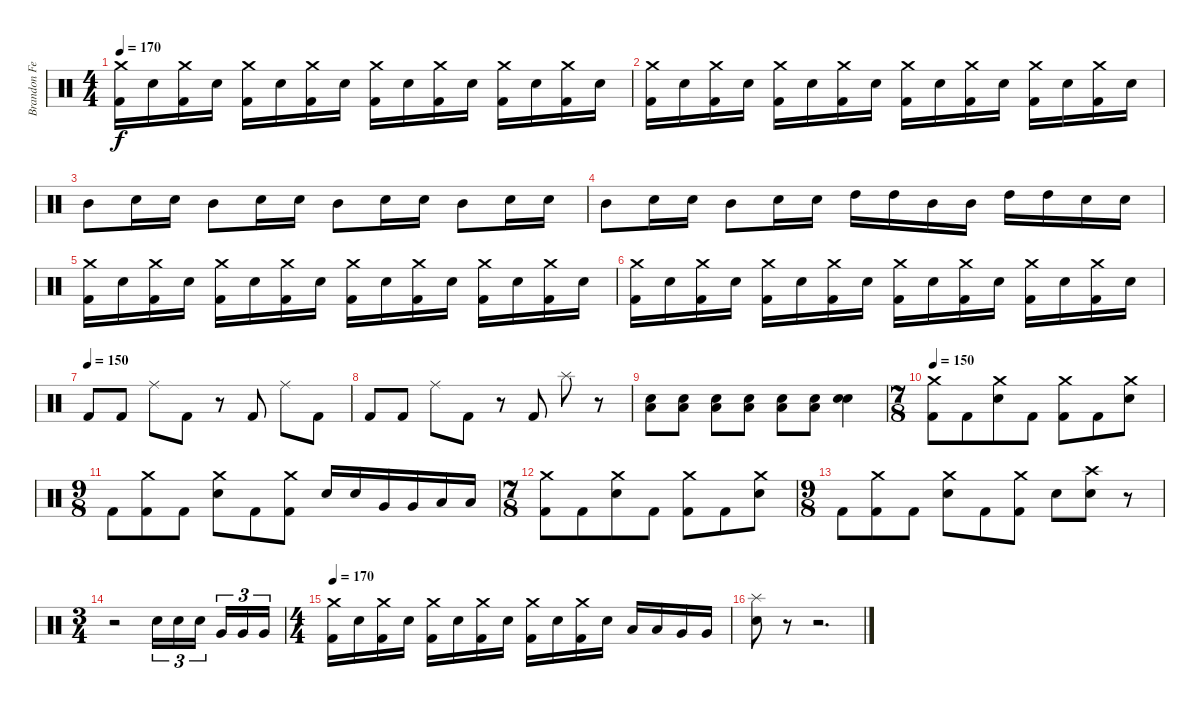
\track ("Brandon Ferrell" "Brandon Fe") {instrument percussion}
\staff {score}
\articulation defaults
\ts (4 4)
\tempo 170
\clef neutral
\ks c
("Crash medium (hit)" "Kick (hit) 2").16{dy f} "Electric Snare (hit)".16 ("Crash medium (hit)" "Kick (hit) 2").16 "Electric Snare (hit)".16 ("Crash medium (hit)" "Kick (hit) 2").16 "Electric Snare (hit)".16 ("Crash medium (hit)" "Kick (hit) 2").16 "Electric Snare (hit)".16 ("Crash medium (hit)" "Kick (hit) 2").16 "Electric Snare (hit)".16 ("Crash medium (hit)" "Kick (hit) 2").16 "Electric Snare (hit)".16 ("Crash medium (hit)" "Kick (hit) 2").16 "Electric Snare (hit)".16 ("Crash medium (hit)" "Kick (hit) 2").16 "Electric Snare (hit)".16 |
("Crash medium (hit)" "Kick (hit) 2").16 "Electric Snare (hit)".16 ("Crash medium (hit)" "Kick (hit) 2").16 "Electric Snare (hit)".16 ("Crash medium (hit)" "Kick (hit) 2").16 "Electric Snare (hit)".16 ("Crash medium (hit)" "Kick (hit) 2").16 "Electric Snare (hit)".16 ("Crash medium (hit)" "Kick (hit) 2").16 "Electric Snare (hit)".16 ("Crash medium (hit)" "Kick (hit) 2").16 "Electric Snare (hit)".16 ("Crash medium (hit)" "Kick (hit) 2").16 "Electric Snare (hit)".16 ("Crash medium (hit)" "Kick (hit) 2").16 "Electric Snare (hit)".16 |
"Mid Tom (hit)".8 "Electric Snare (hit)".16 "Electric Snare (hit)".16 "Mid Tom (hit)".8 "Electric Snare (hit)".16 "Electric Snare (hit)".16 "Mid Tom (hit)".8 "Electric Snare (hit)".16 "Electric Snare (hit)".16 "Mid Tom (hit)".8 "Electric Snare (hit)".16 "Electric Snare (hit)".16 |
"Mid Tom (hit)".8 "Electric Snare (hit)".16 "Electric Snare (hit)".16 "Mid Tom (hit)".8 "Electric Snare (hit)".16 "Electric Snare (hit)".16 "High Tom (hit)".16 "High Tom (hit)".16 "Mid Tom (hit)".16 "Mid Tom (hit)".16 "High Tom (hit)".16 "High Tom (hit)".16 "Electric Snare (hit)".16 "Electric Snare (hit)".16 |
("Crash medium (hit)" "Kick (hit) 2").16 "Electric Snare (hit)".16 ("Crash medium (hit)" "Kick (hit) 2").16 "Electric Snare (hit)".16 ("Crash medium (hit)" "Kick (hit) 2").16 "Electric Snare (hit)".16 ("Crash medium (hit)" "Kick (hit) 2").16 "Electric Snare (hit)".16 ("Crash medium (hit)" "Kick (hit) 2").16 "Electric Snare (hit)".16 ("Crash medium (hit)" "Kick (hit) 2").16 "Electric Snare (hit)".16 ("Crash medium (hit)" "Kick (hit) 2").16 "Electric Snare (hit)".16 ("Crash medium (hit)" "Kick (hit) 2").16 "Electric Snare (hit)".16 |
("Crash medium (hit)" "Kick (hit) 2").16 "Electric Snare (hit)".16 ("Crash medium (hit)" "Kick (hit) 2").16 "Electric Snare (hit)".16 ("Crash medium (hit)" "Kick (hit) 2").16 "Electric Snare (hit)".16 ("Crash medium (hit)" "Kick (hit) 2").16 "Electric Snare (hit)".16 ("Crash medium (hit)" "Kick (hit) 2").16 "Electric Snare (hit)".16 ("Crash medium (hit)" "Kick (hit) 2").16 "Electric Snare (hit)".16 ("Crash medium (hit)" "Kick (hit) 2").16 "Electric Snare (hit)".16 ("Crash medium (hit)" "Kick (hit) 2").16 "Electric Snare (hit)".16 |
\tempo (150)
"Kick (hit) 2".8 "Kick (hit) 2".8 "Ride (middle)".8 "Kick (hit) 2".8 r.8 "Kick (hit) 2".8 "Ride (middle)".8 "Kick (hit) 2".8 |
"Kick (hit) 2".8 "Kick (hit) 2".8 "Ride (middle)".8 "Kick (hit) 2".8 r.8 "Kick (hit) 2".8 "Splash (hit)".8 r.8{volume 5} |
("Low Floor Tom (hit)" "Electric Snare (hit)").8{volume 13} ("Low Floor Tom (hit)" "Electric Snare (hit)").8 ("Low Floor Tom (hit)" "Electric Snare (hit)").8 ("Low Floor Tom (hit)" "Electric Snare (hit)").8 ("Low Floor Tom (hit)" "Electric Snare (hit)").8 ("Low Floor Tom (hit)" "Electric Snare (hit)").8 ("Electric Snare (hit)" "Electric Snare (hit)").4 |
\ts (7 8)
\tempo 150
("Crash medium (hit)" "Kick (hit) 2").8 "Kick (hit) 2".8 ("Crash medium (hit)" "Electric Snare (hit)").8 "Kick (hit) 2".8 ("Crash medium (hit)" "Kick (hit) 2").8 "Kick (hit) 2".8 ("Crash medium (hit)" "Electric Snare (hit)").8 |
\ts (9 8)
"Kick (hit) 2".8 ("Crash medium (hit)" "Kick (hit) 2").8 "Kick (hit) 2".8 ("Crash medium (hit)" "Electric Snare (hit)").8 "Kick (hit) 2".8 ("Crash medium (hit)" "Kick (hit) 2").8 "Electric Snare (hit)".16 "Electric Snare (hit)".16 "Very Low Tom (hit)".16 "Very Low Tom (hit)".16 "Low Floor Tom (hit)".16 "Low Floor Tom (hit)".16 |
\ts (7 8)
("Crash medium (hit)" "Kick (hit) 2").8 "Kick (hit) 2".8 ("Crash medium (hit)" "Electric Snare (hit)").8 "Kick (hit) 2".8 ("Crash medium (hit)" "Kick (hit) 2").8 "Kick (hit) 2".8 ("Crash medium (hit)" "Electric Snare (hit)").8 |
\ts (9 8)
"Kick (hit) 2".8 ("Crash medium (hit)" "Kick (hit) 2").8 "Kick (hit) 2".8 ("Crash medium (hit)" "Electric Snare (hit)").8 "Kick (hit) 2".8 ("Crash medium (hit)" "Kick (hit) 2").8 "Electric Snare (hit)".8 ("Crash high (hit)" "Electric Snare (hit)").8 r.8 |
\ts (3 4)
r.2 "Electric Snare (hit)".16{tu (3 2)} "Electric Snare (hit)".16{tu (3 2)} "Electric Snare (hit)".16{tu (3 2) beam splitsecondary} "Very Low Tom (hit)".16{tu (3 2)} "Very Low Tom (hit)".16{tu (3 2)} "Very Low Tom (hit)".16{tu (3 2)} |
\ts (4 4)
\tempo 170
("Crash medium (hit)" "Kick (hit) 2").16 "Electric Snare (hit)".16 ("Crash medium (hit)" "Kick (hit) 2").16 "Electric Snare (hit)".16 ("Crash medium (hit)" "Kick (hit) 2").16 "Electric Snare (hit)".16 ("Crash medium (hit)" "Kick (hit) 2").16 "Electric Snare (hit)".16 ("Crash medium (hit)" "Kick (hit) 2").16 "Electric Snare (hit)".16 ("Crash medium (hit)" "Kick (hit) 2").16 "Electric Snare (hit)".16 "Low Tom (hit)".16 "Low Tom (hit)".16 "Very Low Tom (hit)".16 "Very Low Tom (hit)".16 |
("Splash (hit)" "Electric Snare (hit)").8 r.8 r.2{d}
